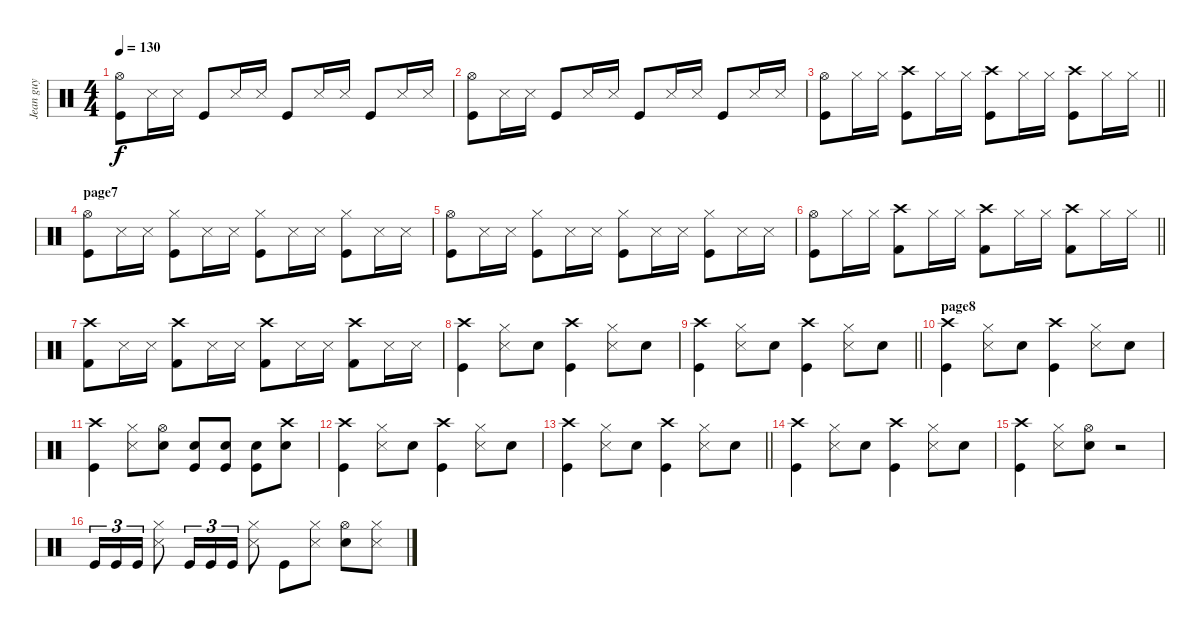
\track ("Jean guy" "Jean guy") {instrument percussion}
\staff {score}
\articulation defaults
\ts (4 4)
\tempo 130
\clef neutral
\ks c
("Hi-Hat (open)" "Kick (hit)").8{dy f} "Snare (side stick) 3".16 "Snare (side stick) 3".16 "Kick (hit)".8 "Snare (side stick) 3".16 "Snare (side stick) 3".16 "Kick (hit)".8 "Snare (side stick) 3".16 "Snare (side stick) 3".16 "Kick (hit)".8 "Snare (side stick) 3".16 "Snare (side stick) 3".16 |
("Hi-Hat (open)" "Kick (hit)").8 "Snare (side stick) 3".16 "Snare (side stick) 3".16 "Kick (hit)".8 "Snare (side stick) 3".16 "Snare (side stick) 3".16 "Kick (hit)".8 "Snare (side stick) 3".16 "Snare (side stick) 3".16 "Kick (hit)".8 "Snare (side stick) 3".16 "Snare (side stick) 3".16 |
\barLineRight lightlight
("Hi-Hat (open)" "Kick (hit)").8 "Hi-Hat (closed)".16 "Hi-Hat (closed)".16 ("Crash high (hit)" "Kick (hit)").8 "Hi-Hat (closed)".16 "Hi-Hat (closed)".16 ("Crash high (hit)" "Kick (hit)").8 "Hi-Hat (closed)".16 "Hi-Hat (closed)".16 ("Crash high (hit)" "Kick (hit)").8 "Hi-Hat (closed)".16 "Hi-Hat (closed)".16 |
\section ("" "page7")
("Hi-Hat (open)" "Kick (hit)").8 "Snare (side stick) 3".16 "Snare (side stick) 3".16 ("Hi-Hat (closed)" "Kick (hit)").8 "Snare (side stick) 3".16 "Snare (side stick) 3".16 ("Hi-Hat (closed)" "Kick (hit)").8 "Snare (side stick) 3".16 "Snare (side stick) 3".16 ("Hi-Hat (closed)" "Kick (hit)").8 "Snare (side stick) 3".16 "Snare (side stick) 3".16 |
("Hi-Hat (open)" "Kick (hit)").8 "Snare (side stick) 3".16 "Snare (side stick) 3".16 ("Hi-Hat (closed)" "Kick (hit)").8 "Snare (side stick) 3".16 "Snare (side stick) 3".16 ("Hi-Hat (closed)" "Kick (hit)").8 "Snare (side stick) 3".16 "Snare (side stick) 3".16 ("Hi-Hat (closed)" "Kick (hit)").8 "Snare (side stick) 3".16 "Snare (side stick) 3".16 |
\barLineRight lightlight
("Hi-Hat (open)" "Kick (hit)").8 "Hi-Hat (closed)".16 "Hi-Hat (closed)".16 ("Crash high (hit)" "Kick (hit) 2").8 "Hi-Hat (closed)".16 "Hi-Hat (closed)".16 ("Crash high (hit)" "Kick (hit) 2").8 "Hi-Hat (closed)".16 "Hi-Hat (closed)".16 ("Crash high (hit)" "Kick (hit) 2").8 "Hi-Hat (closed)".16 "Hi-Hat (closed)".16 |
("Crash high (hit)" "Kick (hit) 2").8 "Snare (side stick) 3".16 "Snare (side stick) 3".16 ("Crash high (hit)" "Kick (hit) 2").8 "Snare (side stick) 3".16 "Snare (side stick) 3".16 ("Crash high (hit)" "Kick (hit) 2").8 "Snare (side stick) 3".16 "Snare (side stick) 3".16 ("Crash high (hit)" "Kick (hit) 2").8 "Snare (side stick) 3".16 "Snare (side stick) 3".16 |
("Crash high (hit)" "Kick (hit)").4 ("Hi-Hat (closed)" "Snare (side stick) 3").8 "Electric Snare (hit)".8 ("Crash high (hit)" "Kick (hit)").4 ("Hi-Hat (closed)" "Snare (side stick) 3").8 "Electric Snare (hit)".8 |
\barLineRight lightlight
("Crash high (hit)" "Kick (hit)").4 ("Hi-Hat (closed)" "Snare (side stick) 3").8 "Electric Snare (hit)".8 ("Crash high (hit)" "Kick (hit)").4 ("Hi-Hat (closed)" "Snare (side stick) 3").8 "Electric Snare (hit)".8 |
\section ("" "page8")
("Crash high (hit)" "Kick (hit)").4 ("Hi-Hat (closed)" "Snare (side stick) 3").8 "Electric Snare (hit)".8 ("Crash high (hit)" "Kick (hit)").4 ("Hi-Hat (closed)" "Snare (side stick) 3").8 "Electric Snare (hit)".8 |
("Crash high (hit)" "Kick (hit)").4 ("Hi-Hat (closed)" "Snare (side stick) 3").8 ("Hi-Hat (open)" "Electric Snare (hit)").8 ("Kick (hit)" "Electric Snare (hit)").8 ("Kick (hit)" "Electric Snare (hit)").8 ("Kick (hit)" "Electric Snare (hit)").8 ("Crash high (hit)" "Electric Snare (hit)").8 |
("Crash high (hit)" "Kick (hit)").4 ("Hi-Hat (closed)" "Snare (side stick) 3").8 "Electric Snare (hit)".8 ("Crash high (hit)" "Kick (hit)").4 ("Hi-Hat (closed)" "Snare (side stick) 3").8 "Electric Snare (hit)".8 |
\barLineRight lightlight
("Crash high (hit)" "Kick (hit)").4 ("Hi-Hat (closed)" "Snare (side stick) 3").8 "Electric Snare (hit)".8 ("Crash high (hit)" "Kick (hit)").4 ("Hi-Hat (closed)" "Snare (side stick) 3").8 "Electric Snare (hit)".8 |
("Crash high (hit)" "Kick (hit)").4 ("Hi-Hat (closed)" "Snare (side stick) 3").8 "Electric Snare (hit)".8 ("Crash high (hit)" "Kick (hit)").4 ("Hi-Hat (closed)" "Snare (side stick) 3").8 "Electric Snare (hit)".8 |
("Crash high (hit)" "Kick (hit)").4 ("Hi-Hat (closed)" "Snare (side stick) 3").8 ("Hi-Hat (open)" "Electric Snare (hit)").8 r.2 |
"Kick (hit)".16{tu (3 2)} "Kick (hit)".16{tu (3 2)} "Kick (hit)".16{tu (3 2)} ("Hi-Hat (closed)" "Snare (side stick) 3").8 "Kick (hit)".16{tu (3 2)} "Kick (hit)".16{tu (3 2)} "Kick (hit)".16{tu (3 2)} ("Hi-Hat (closed)" "Snare (side stick) 3").8 "Kick (hit)".8 ("Hi-Hat (closed)" "Snare (side stick) 3").8 ("Hi-Hat (open)" "Electric Snare (hit)").8 ("Hi-Hat (closed)" "Snare (side stick) 3").8
